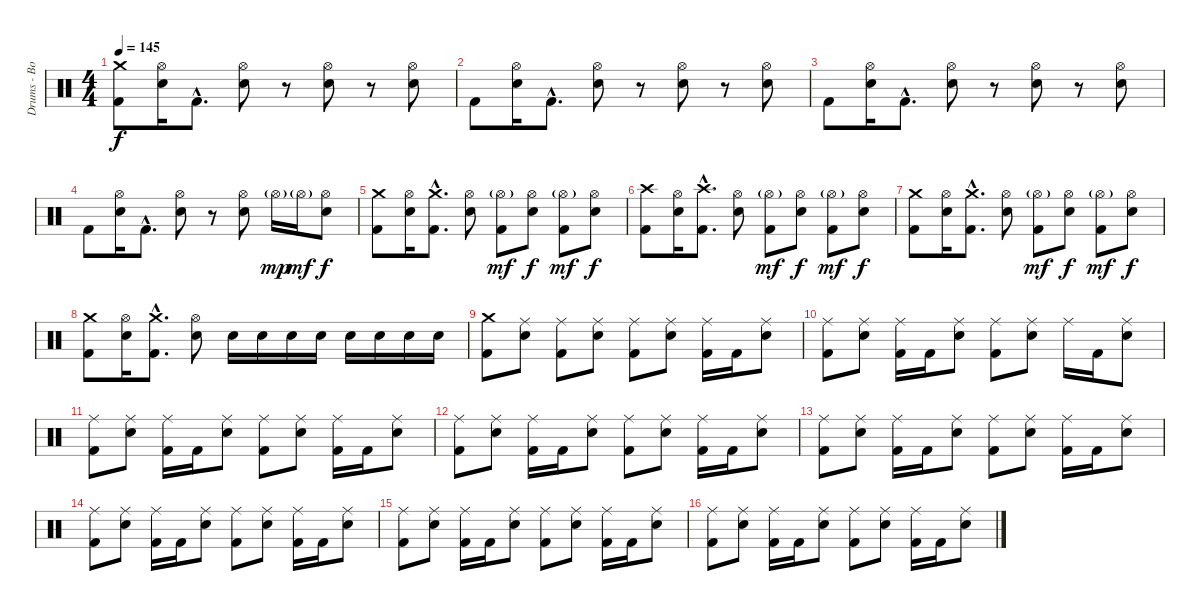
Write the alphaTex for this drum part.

\track ("Drums - Bobby Schayer" "Drums - Bo") {instrument percussion}
\staff {score}
\articulation defaults
\ts (4 4)
\tempo 145
\clef neutral
\ks c
("Crash medium (hit)" "Kick (hit) 2").8{dy f} ("Hi-Hat (open)" "Electric Snare (hit)").16 "Kick (hit) 2"{hac}.8{d} ("Hi-Hat (open)" "Electric Snare (hit)").8 r.8 ("Hi-Hat (open)" "Electric Snare (hit)").8 r.8 ("Hi-Hat (open)" "Electric Snare (hit)").8 |
"Kick (hit) 2".8 ("Hi-Hat (open)" "Electric Snare (hit)").16 "Kick (hit) 2"{hac}.8{d} ("Hi-Hat (open)" "Electric Snare (hit)").8 r.8 ("Hi-Hat (open)" "Electric Snare (hit)").8 r.8 ("Hi-Hat (open)" "Electric Snare (hit)").8 |
"Kick (hit) 2".8 ("Hi-Hat (open)" "Electric Snare (hit)").16 "Kick (hit) 2"{hac}.8{d} ("Hi-Hat (open)" "Electric Snare (hit)").8 r.8 ("Hi-Hat (open)" "Electric Snare (hit)").8 r.8 ("Hi-Hat (open)" "Electric Snare (hit)").8 |
"Kick (hit) 2".8 ("Hi-Hat (open)" "Electric Snare (hit)").16 "Kick (hit) 2"{hac}.8{d} ("Hi-Hat (open)" "Electric Snare (hit)").8 r.8 ("Hi-Hat (open)" "Electric Snare (hit)").8 "Hi-Hat (open)"{g}.16{dy mp} "Hi-Hat (open)"{g}.16{dy mf} ("Hi-Hat (open)" "Electric Snare (hit)").8{dy f} |
("Crash medium (hit)" "Kick (hit) 2").8 ("Hi-Hat (open)" "Electric Snare (hit)").16 ("Crash medium (hit)"{hac} "Kick (hit) 2"{hac}).8{d} ("Hi-Hat (open)" "Electric Snare (hit)").8 ("Hi-Hat (open)"{g} "Kick (hit) 2").8{dy mf} ("Hi-Hat (open)" "Electric Snare (hit)").8{dy f} ("Hi-Hat (open)"{g} "Kick (hit) 2").8{dy mf} ("Hi-Hat (open)" "Electric Snare (hit)").8{dy f} |
("Crash high (hit)" "Kick (hit) 2").8 ("Hi-Hat (open)" "Electric Snare (hit)").16 ("Crash high (hit)"{hac} "Kick (hit) 2"{hac}).8{d} ("Hi-Hat (open)" "Electric Snare (hit)").8 ("Hi-Hat (open)"{g} "Kick (hit) 2").8{dy mf} ("Hi-Hat (open)" "Electric Snare (hit)").8{dy f} ("Hi-Hat (open)"{g} "Kick (hit) 2").8{dy mf} ("Hi-Hat (open)" "Electric Snare (hit)").8{dy f} |
("Crash medium (hit)" "Kick (hit) 2").8 ("Hi-Hat (open)" "Electric Snare (hit)").16 ("Crash medium (hit)"{hac} "Kick (hit) 2"{hac}).8{d} ("Hi-Hat (open)" "Electric Snare (hit)").8 ("Hi-Hat (open)"{g} "Kick (hit) 2").8{dy mf} ("Hi-Hat (open)" "Electric Snare (hit)").8{dy f} ("Hi-Hat (open)"{g} "Kick (hit) 2").8{dy mf} ("Hi-Hat (open)" "Electric Snare (hit)").8{dy f} |
("Crash medium (hit)" "Kick (hit) 2").8 ("Hi-Hat (open)" "Electric Snare (hit)").16 ("Crash medium (hit)"{hac} "Kick (hit) 2"{hac}).8{d} ("Hi-Hat (open)" "Electric Snare (hit)").8 "Electric Snare (hit)".16 "Electric Snare (hit)".16 "Electric Snare (hit)".16 "Electric Snare (hit)".16 "Electric Snare (hit)".16 "Electric Snare (hit)".16 "Electric Snare (hit)".16 "Electric Snare (hit)".16 |
("Crash medium (hit)" "Kick (hit) 2").8 ("Ride (middle)" "Electric Snare (hit)").8 ("Ride (middle)" "Kick (hit) 2").8 ("Ride (middle)" "Electric Snare (hit)").8 ("Ride (middle)" "Kick (hit) 2").8 ("Ride (middle)" "Electric Snare (hit)").8 ("Ride (middle)" "Kick (hit) 2").16 "Kick (hit) 2".16 ("Ride (middle)" "Electric Snare (hit)").8 |
("Ride (middle)" "Kick (hit) 2").8 ("Ride (middle)" "Electric Snare (hit)").8 ("Ride (middle)" "Kick (hit) 2").16 "Kick (hit) 2".16 ("Ride (middle)" "Electric Snare (hit)").8 ("Ride (middle)" "Kick (hit) 2").8 ("Ride (middle)" "Electric Snare (hit)").8 "Ride (middle)".16 "Kick (hit) 2".16 ("Ride (middle)" "Electric Snare (hit)").8 |
("Ride (middle)" "Kick (hit) 2").8 ("Ride (middle)" "Electric Snare (hit)").8 ("Ride (middle)" "Kick (hit) 2").16 "Kick (hit) 2".16 ("Ride (middle)" "Electric Snare (hit)").8 ("Ride (middle)" "Kick (hit) 2").8 ("Ride (middle)" "Electric Snare (hit)").8 ("Ride (middle)" "Kick (hit) 2").16 "Kick (hit) 2".16 ("Ride (middle)" "Electric Snare (hit)").8 |
("Ride (middle)" "Kick (hit) 2").8 ("Ride (middle)" "Electric Snare (hit)").8 ("Ride (middle)" "Kick (hit) 2").16 "Kick (hit) 2".16 ("Ride (middle)" "Electric Snare (hit)").8 ("Ride (middle)" "Kick (hit) 2").8 ("Ride (middle)" "Electric Snare (hit)").8 ("Ride (middle)" "Kick (hit) 2").16 "Kick (hit) 2".16 ("Ride (middle)" "Electric Snare (hit)").8 |
("Ride (middle)" "Kick (hit) 2").8 ("Ride (middle)" "Electric Snare (hit)").8 ("Ride (middle)" "Kick (hit) 2").16 "Kick (hit) 2".16 ("Ride (middle)" "Electric Snare (hit)").8 ("Ride (middle)" "Kick (hit) 2").8 ("Ride (middle)" "Electric Snare (hit)").8 ("Ride (middle)" "Kick (hit) 2").16 "Kick (hit) 2".16 ("Ride (middle)" "Electric Snare (hit)").8 |
("Ride (middle)" "Kick (hit) 2").8 ("Ride (middle)" "Electric Snare (hit)").8 ("Ride (middle)" "Kick (hit) 2").16 "Kick (hit) 2".16 ("Ride (middle)" "Electric Snare (hit)").8 ("Ride (middle)" "Kick (hit) 2").8 ("Ride (middle)" "Electric Snare (hit)").8 ("Ride (middle)" "Kick (hit) 2").16 "Kick (hit) 2".16 ("Ride (middle)" "Electric Snare (hit)").8 |
("Ride (middle)" "Kick (hit) 2").8 ("Ride (middle)" "Electric Snare (hit)").8 ("Ride (middle)" "Kick (hit) 2").16 "Kick (hit) 2".16 ("Ride (middle)" "Electric Snare (hit)").8 ("Ride (middle)" "Kick (hit) 2").8 ("Ride (middle)" "Electric Snare (hit)").8 ("Ride (middle)" "Kick (hit) 2").16 "Kick (hit) 2".16 ("Ride (middle)" "Electric Snare (hit)").8 |
("Ride (middle)" "Kick (hit) 2").8 ("Ride (middle)" "Electric Snare (hit)").8 ("Ride (middle)" "Kick (hit) 2").16 "Kick (hit) 2".16 ("Ride (middle)" "Electric Snare (hit)").8 ("Ride (middle)" "Kick (hit) 2").8 ("Ride (middle)" "Electric Snare (hit)").8 ("Ride (middle)" "Kick (hit) 2").16 "Kick (hit) 2".16 ("Ride (middle)" "Electric Snare (hit)").8
